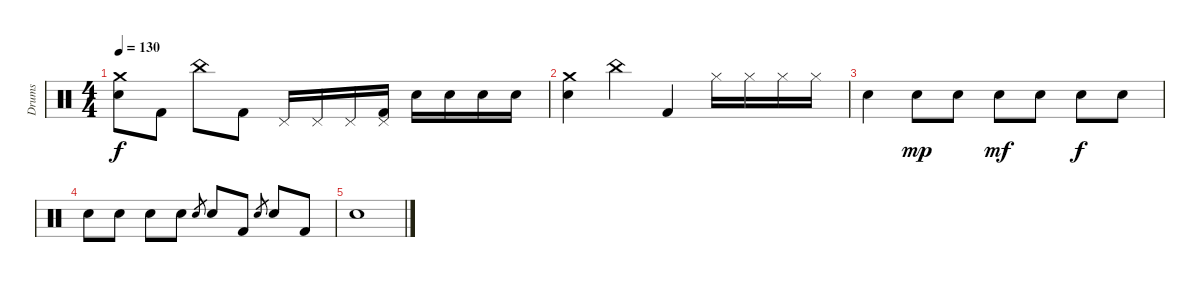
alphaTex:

\track ("Drums" "Drums") {instrument percussion}
\staff {score}
\articulation defaults
\ts (4 4)
\tempo 130
\clef neutral
\ks c
("Crash medium (hit)" "Electric Snare (hit)").8{dy f} "Kick (hit) 2".8 "China (hit)".8 "Kick (hit) 2".8 "Pedal Hi-Hat (hit)".16 "Pedal Hi-Hat (hit)".16 "Pedal Hi-Hat (hit)".16 ("Pedal Hi-Hat (hit)" "Kick (hit) 2").16 "Snare (hit) 2".16 "Snare (hit) 2".16 "Snare (hit) 2".16 "Snare (hit) 2".16 |
("Crash medium (hit)" "Electric Snare (hit)").4 "China (hit)".4 "Kick (hit) 2".4 "Hi-Hat (closed)".16 "Hi-Hat (closed)".16 "Hi-Hat (closed)".16 "Hi-Hat (closed)".16 |
"Electric Snare (hit)".4 "Electric Snare (hit)".8{dy mp} "Electric Snare (hit)".8 "Electric Snare (hit)".8{dy mf} "Electric Snare (hit)".8 "Electric Snare (hit)".8{dy f} "Electric Snare (hit)".8 |
"Electric Snare (hit)".8 "Electric Snare (hit)".8 "Electric Snare (hit)".8 "Electric Snare (hit)".8 "Electric Snare (hit)".8{gr} "Electric Snare (hit)".8 "Kick (hit) 2".8 "Electric Snare (hit)".8{gr} "Electric Snare (hit)".8 "Kick (hit) 2".8 |
"Electric Snare (hit)".1
